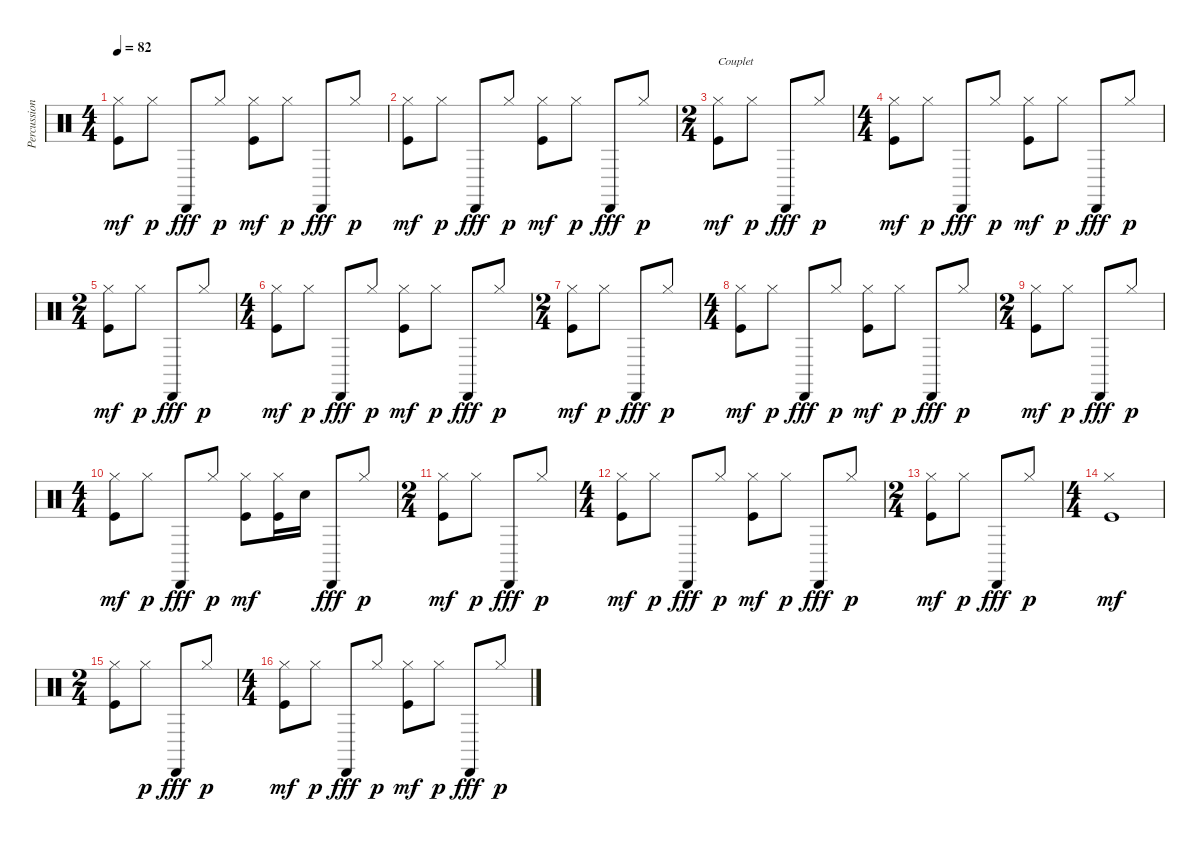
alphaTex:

\track ("Percussions" "Percussion") {instrument percussion}
\staff {score}
\articulation defaults
\ts (4 4)
\tempo 82
\clef neutral
\ks c
("Hi-Hat (closed)" "Kick (hit)").8{dy mf} "Hi-Hat (closed)".8{dy p} "Cabasa (hit)".8{dy fff} "Hi-Hat (closed)".8{dy p} ("Hi-Hat (closed)" "Kick (hit)").8{dy mf} "Hi-Hat (closed)".8{dy p} "Cabasa (hit)".8{dy fff} "Hi-Hat (closed)".8{dy p} |
("Hi-Hat (closed)" "Kick (hit)").8{dy mf} "Hi-Hat (closed)".8{dy p} "Cabasa (hit)".8{dy fff} "Hi-Hat (closed)".8{dy p} ("Hi-Hat (closed)" "Kick (hit)").8{dy mf} "Hi-Hat (closed)".8{dy p} "Cabasa (hit)".8{dy fff} "Hi-Hat (closed)".8{dy p} |
\ts (2 4)
("Hi-Hat (closed)" "Kick (hit)").8{txt "Couplet" dy mf} "Hi-Hat (closed)".8{dy p} "Cabasa (hit)".8{dy fff} "Hi-Hat (closed)".8{dy p} |
\ts (4 4)
("Hi-Hat (closed)" "Kick (hit)").8{dy mf} "Hi-Hat (closed)".8{dy p} "Cabasa (hit)".8{dy fff} "Hi-Hat (closed)".8{dy p} ("Hi-Hat (closed)" "Kick (hit)").8{dy mf} "Hi-Hat (closed)".8{dy p} "Cabasa (hit)".8{dy fff} "Hi-Hat (closed)".8{dy p} |
\ts (2 4)
("Hi-Hat (closed)" "Kick (hit)").8{dy mf} "Hi-Hat (closed)".8{dy p} "Cabasa (hit)".8{dy fff} "Hi-Hat (closed)".8{dy p} |
\ts (4 4)
("Hi-Hat (closed)" "Kick (hit)").8{dy mf} "Hi-Hat (closed)".8{dy p} "Cabasa (hit)".8{dy fff} "Hi-Hat (closed)".8{dy p} ("Hi-Hat (closed)" "Kick (hit)").8{dy mf} "Hi-Hat (closed)".8{dy p} "Cabasa (hit)".8{dy fff} "Hi-Hat (closed)".8{dy p} |
\ts (2 4)
("Hi-Hat (closed)" "Kick (hit)").8{dy mf} "Hi-Hat (closed)".8{dy p} "Cabasa (hit)".8{dy fff} "Hi-Hat (closed)".8{dy p} |
\ts (4 4)
("Hi-Hat (closed)" "Kick (hit)").8{dy mf} "Hi-Hat (closed)".8{dy p} "Cabasa (hit)".8{dy fff} "Hi-Hat (closed)".8{dy p} ("Hi-Hat (closed)" "Kick (hit)").8{dy mf} "Hi-Hat (closed)".8{dy p} "Cabasa (hit)".8{dy fff} "Hi-Hat (closed)".8{dy p} |
\ts (2 4)
("Hi-Hat (closed)" "Kick (hit)").8{dy mf} "Hi-Hat (closed)".8{dy p} "Cabasa (hit)".8{dy fff} "Hi-Hat (closed)".8{dy p} |
\ts (4 4)
("Hi-Hat (closed)" "Kick (hit)").8{dy mf} "Hi-Hat (closed)".8{dy p} "Cabasa (hit)".8{dy fff} "Hi-Hat (closed)".8{dy p} ("Hi-Hat (closed)" "Kick (hit)").8{dy mf} ("Hi-Hat (closed)" "Kick (hit)").16 "Snare (hit) 2".16 "Cabasa (hit)".8{dy fff} "Hi-Hat (closed)".8{dy p} |
\ts (2 4)
("Hi-Hat (closed)" "Kick (hit)").8{dy mf} "Hi-Hat (closed)".8{dy p} "Cabasa (hit)".8{dy fff} "Hi-Hat (closed)".8{dy p} |
\ts (4 4)
("Hi-Hat (closed)" "Kick (hit)").8{dy mf} "Hi-Hat (closed)".8{dy p} "Cabasa (hit)".8{dy fff} "Hi-Hat (closed)".8{dy p} ("Hi-Hat (closed)" "Kick (hit)").8{dy mf} "Hi-Hat (closed)".8{dy p} "Cabasa (hit)".8{dy fff} "Hi-Hat (closed)".8{dy p} |
\ts (2 4)
("Hi-Hat (closed)" "Kick (hit)").8{dy mf} "Hi-Hat (closed)".8{dy p} "Cabasa (hit)".8{dy fff} "Hi-Hat (closed)".8{dy p} |
\ts (4 4)
("Hi-Hat (closed)" "Kick (hit)").1{dy mf} |
\ts (2 4)
("Hi-Hat (closed)" "Kick (hit)").8 "Hi-Hat (closed)".8{dy p} "Cabasa (hit)".8{dy fff} "Hi-Hat (closed)".8{dy p} |
\ts (4 4)
("Hi-Hat (closed)" "Kick (hit)").8{dy mf} "Hi-Hat (closed)".8{dy p} "Cabasa (hit)".8{dy fff} "Hi-Hat (closed)".8{dy p} ("Hi-Hat (closed)" "Kick (hit)").8{dy mf} "Hi-Hat (closed)".8{dy p} "Cabasa (hit)".8{dy fff} "Hi-Hat (closed)".8{dy p}
